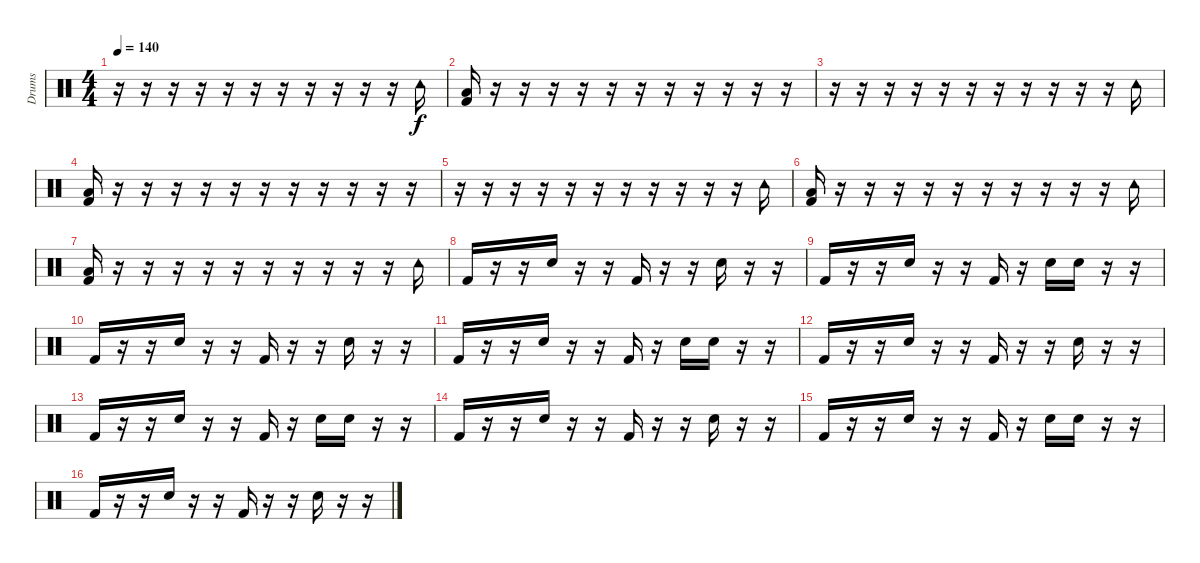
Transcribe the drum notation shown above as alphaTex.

\track ("Drums" "Drums") {instrument percussion}
\staff {score}
\articulation defaults
\ts (4 4)
\tempo 140
\clef neutral
\ks c
r.16{dy f} r.16 r.16 r.16 r.16 r.16 r.16 r.16 r.16 r.16 r.16 "Tambourine (hit)".16 |
("Low Floor Tom (hit)" "Kick (hit) 2").16 r.16 r.16 r.16 r.16 r.16 r.16 r.16 r.16 r.16 r.16 r.16 |
r.16 r.16 r.16 r.16 r.16 r.16 r.16 r.16 r.16 r.16 r.16 "Tambourine (hit)".16 |
("Low Floor Tom (hit)" "Kick (hit) 2").16 r.16 r.16 r.16 r.16 r.16 r.16 r.16 r.16 r.16 r.16 r.16 |
r.16 r.16 r.16 r.16 r.16 r.16 r.16 r.16 r.16 r.16 r.16 "Tambourine (hit)".16 |
("Low Floor Tom (hit)" "Kick (hit) 2").16 r.16 r.16 r.16 r.16 r.16 r.16 r.16 r.16 r.16 r.16 "Tambourine (hit)".16 |
("Low Floor Tom (hit)" "Kick (hit) 2").16 r.16 r.16 r.16 r.16 r.16 r.16 r.16 r.16 r.16 r.16 "Tambourine (hit)".16 |
"Kick (hit) 2".16 r.16 r.16 "Snare (hit) 2".16 r.16 r.16 "Kick (hit) 2".16 r.16 r.16 "Snare (hit) 2".16 r.16 r.16 |
"Kick (hit) 2".16 r.16 r.16 "Snare (hit) 2".16 r.16 r.16 "Kick (hit) 2".16 r.16 "Snare (hit) 2".16 "Snare (hit) 2".16 r.16 r.16 |
"Kick (hit) 2".16 r.16 r.16 "Snare (hit) 2".16 r.16 r.16 "Kick (hit) 2".16 r.16 r.16 "Snare (hit) 2".16 r.16 r.16 |
"Kick (hit) 2".16 r.16 r.16 "Snare (hit) 2".16 r.16 r.16 "Kick (hit) 2".16 r.16 "Snare (hit) 2".16 "Snare (hit) 2".16 r.16 r.16 |
"Kick (hit) 2".16 r.16 r.16 "Snare (hit) 2".16 r.16 r.16 "Kick (hit) 2".16 r.16 r.16 "Snare (hit) 2".16 r.16 r.16 |
"Kick (hit) 2".16 r.16 r.16 "Snare (hit) 2".16 r.16 r.16 "Kick (hit) 2".16 r.16 "Snare (hit) 2".16 "Snare (hit) 2".16 r.16 r.16 |
"Kick (hit) 2".16 r.16 r.16 "Snare (hit) 2".16 r.16 r.16 "Kick (hit) 2".16 r.16 r.16 "Snare (hit) 2".16 r.16 r.16 |
"Kick (hit) 2".16 r.16 r.16 "Snare (hit) 2".16 r.16 r.16 "Kick (hit) 2".16 r.16 "Snare (hit) 2".16 "Snare (hit) 2".16 r.16 r.16 |
"Kick (hit) 2".16 r.16 r.16 "Snare (hit) 2".16 r.16 r.16 "Kick (hit) 2".16 r.16 r.16 "Snare (hit) 2".16 r.16 r.16
